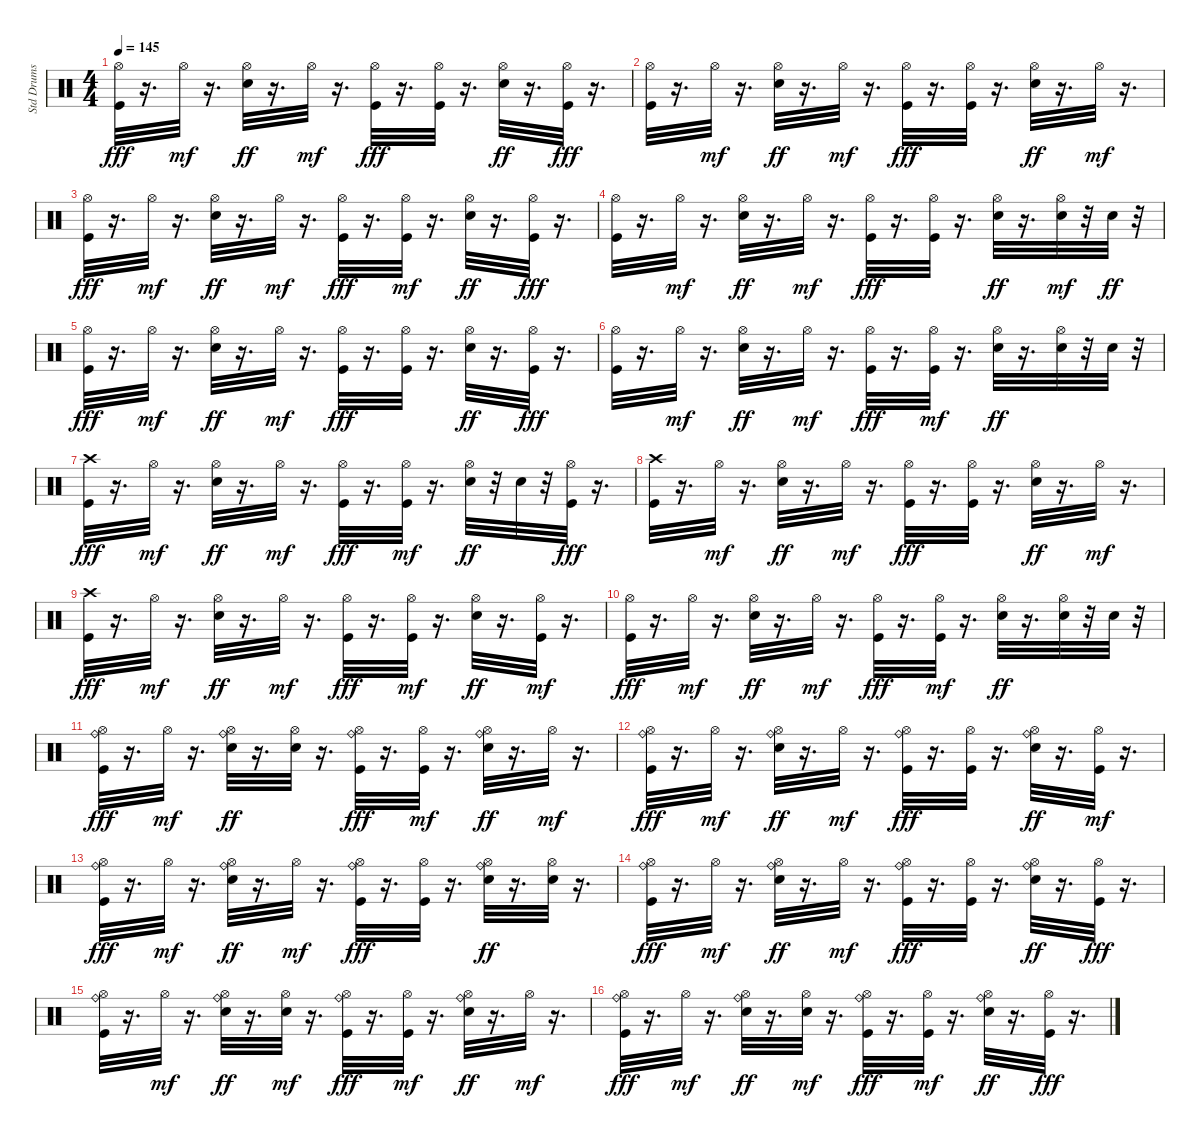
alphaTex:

\track ("Std Drums" "Std Drums") {instrument percussion}
\staff {score}
\articulation defaults
\ts (4 4)
\tempo 145
\clef neutral
\ks c
("Hi-Hat (open)" "Kick (hit)").32{dy fff} r.16{d} "Hi-Hat (open)".32{dy mf} r.16{d} ("Hi-Hat (open)" "Snare (hit) 2").32{dy ff} r.16{d} "Hi-Hat (open)".32{dy mf} r.16{d} ("Kick (hit)" "Hi-Hat (open)").32{dy fff} r.16{d} ("Hi-Hat (open)" "Kick (hit)").32 r.16{d} ("Hi-Hat (open)" "Snare (hit) 2").32{dy ff} r.16{d} ("Hi-Hat (open)" "Kick (hit)").32{dy fff} r.16{d} |
("Hi-Hat (open)" "Kick (hit)").32 r.16{d} "Hi-Hat (open)".32{dy mf} r.16{d} ("Hi-Hat (open)" "Snare (hit) 2").32{dy ff} r.16{d} "Hi-Hat (open)".32{dy mf} r.16{d} ("Hi-Hat (open)" "Kick (hit)").32{dy fff} r.16{d} ("Hi-Hat (open)" "Kick (hit)").32 r.16{d} ("Hi-Hat (open)" "Snare (hit) 2").32{dy ff} r.16{d} "Hi-Hat (open)".32{dy mf} r.16{d} |
("Kick (hit)" "Hi-Hat (open)").32{dy fff} r.16{d} "Hi-Hat (open)".32{dy mf} r.16{d} ("Hi-Hat (open)" "Snare (hit) 2").32{dy ff} r.16{d} "Hi-Hat (open)".32{dy mf} r.16{d} ("Kick (hit)" "Hi-Hat (open)").32{dy fff} r.16{d} ("Kick (hit)" "Hi-Hat (open)").32{dy mf} r.16{d} ("Hi-Hat (open)" "Snare (hit) 2").32{dy ff} r.16{d} ("Hi-Hat (open)" "Kick (hit)").32{dy fff} r.16{d} |
("Kick (hit)" "Hi-Hat (open)").32 r.16{d} "Hi-Hat (open)".32{dy mf} r.16{d} ("Snare (hit) 2" "Hi-Hat (open)").32{dy ff} r.16{d} "Hi-Hat (open)".32{dy mf} r.16{d} ("Kick (hit)" "Hi-Hat (open)").32{dy fff} r.16{d} ("Hi-Hat (open)" "Kick (hit)").32 r.16{d} ("Hi-Hat (open)" "Snare (hit) 2").32{dy ff} r.16{d} ("Snare (hit) 2" "Hi-Hat (open)").32{dy mf} r.32 "Snare (hit) 2".32{dy ff} r.32 |
("Kick (hit)" "Hi-Hat (open)").32{dy fff} r.16{d} "Hi-Hat (open)".32{dy mf} r.16{d} ("Snare (hit) 2" "Hi-Hat (open)").32{dy ff} r.16{d} "Hi-Hat (open)".32{dy mf} r.16{d} ("Kick (hit)" "Hi-Hat (open)").32{dy fff} r.16{d} ("Hi-Hat (open)" "Kick (hit)").32 r.16{d} ("Hi-Hat (open)" "Snare (hit) 2").32{dy ff} r.16{d} ("Hi-Hat (open)" "Kick (hit)").32{dy fff} r.16{d} |
("Hi-Hat (open)" "Kick (hit)").32 r.16{d} "Hi-Hat (open)".32{dy mf} r.16{d} ("Snare (hit) 2" "Hi-Hat (open)").32{dy ff} r.16{d} "Hi-Hat (open)".32{dy mf} r.16{d} ("Kick (hit)" "Hi-Hat (open)").32{dy fff} r.16{d} ("Kick (hit)" "Hi-Hat (open)").32{dy mf} r.16{d} ("Snare (hit) 2" "Hi-Hat (open)").32{dy ff} r.16{d} ("Hi-Hat (open)" "Snare (hit) 2").32 r.32 "Snare (hit) 2".32 r.32 |
("Crash high (hit)" "Kick (hit)").32{dy fff} r.16{d} "Hi-Hat (open)".32{dy mf} r.16{d} ("Snare (hit) 2" "Hi-Hat (open)").32{dy ff} r.16{d} "Hi-Hat (open)".32{dy mf} r.16{d} ("Kick (hit)" "Hi-Hat (open)").32{dy fff} r.16{d} ("Kick (hit)" "Hi-Hat (open)").32{dy mf} r.16{d} ("Hi-Hat (open)" "Snare (hit) 2").32{dy ff} r.32 "Snare (hit) 2".32 r.32 ("Hi-Hat (open)" "Kick (hit)").32{dy fff} r.16{d} |
("Kick (hit)" "Crash high (hit)").32 r.16{d} "Hi-Hat (open)".32{dy mf} r.16{d} ("Hi-Hat (open)" "Snare (hit) 2").32{dy ff} r.16{d} "Hi-Hat (open)".32{dy mf} r.16{d} ("Hi-Hat (open)" "Kick (hit)").32{dy fff} r.16{d} ("Hi-Hat (open)" "Kick (hit)").32 r.16{d} ("Hi-Hat (open)" "Snare (hit) 2").32{dy ff} r.16{d} "Hi-Hat (open)".32{dy mf} r.16{d} |
("Kick (hit)" "Crash high (hit)").32{dy fff} r.16{d} "Hi-Hat (open)".32{dy mf} r.16{d} ("Hi-Hat (open)" "Snare (hit) 2").32{dy ff} r.16{d} "Hi-Hat (open)".32{dy mf} r.16{d} ("Kick (hit)" "Hi-Hat (open)").32{dy fff} r.16{d} ("Kick (hit)" "Hi-Hat (open)").32{dy mf} r.16{d} ("Snare (hit) 2" "Hi-Hat (open)").32{dy ff} r.16{d} ("Kick (hit)" "Hi-Hat (open)").32{dy mf} r.16{d} |
("Hi-Hat (open)" "Kick (hit)").32{dy fff} r.16{d} "Hi-Hat (open)".32{dy mf} r.16{d} ("Hi-Hat (open)" "Snare (hit) 2").32{dy ff} r.16{d} "Hi-Hat (open)".32{dy mf} r.16{d} ("Hi-Hat (open)" "Kick (hit)").32{dy fff} r.16{d} ("Kick (hit)" "Hi-Hat (open)").32{dy mf} r.16{d} ("Snare (hit) 2" "Hi-Hat (open)").32{dy ff} r.16{d} ("Hi-Hat (open)" "Snare (hit) 2").32 r.32 "Snare (hit) 2".32 r.32 |
("Hi-Hat (open)" "Kick (hit)" "Ride (bell)").32{dy fff} r.16{d} "Hi-Hat (open)".32{dy mf} r.16{d} ("Hi-Hat (open)" "Snare (hit) 2" "Ride (bell)").32{dy ff} r.16{d} ("Hi-Hat (open)" "Snare (hit) 2").32 r.16{d} ("Kick (hit)" "Ride (bell)" "Hi-Hat (open)").32{dy fff} r.16{d} ("Kick (hit)" "Hi-Hat (open)").32{dy mf} r.16{d} ("Snare (hit) 2" "Hi-Hat (open)" "Ride (bell)").32{dy ff} r.16{d} "Hi-Hat (open)".32{dy mf} r.16{d} |
("Kick (hit)" "Hi-Hat (open)" "Ride (bell)").32{dy fff} r.16{d} "Hi-Hat (open)".32{dy mf} r.16{d} ("Hi-Hat (open)" "Ride (bell)" "Snare (hit) 2").32{dy ff} r.16{d} "Hi-Hat (open)".32{dy mf} r.16{d} ("Hi-Hat (open)" "Kick (hit)" "Ride (bell)").32{dy fff} r.16{d} ("Hi-Hat (open)" "Kick (hit)").32 r.16{d} ("Ride (bell)" "Hi-Hat (open)" "Snare (hit) 2").32{dy ff} r.16{d} ("Kick (hit)" "Hi-Hat (open)").32{dy mf} r.16{d} |
("Kick (hit)" "Hi-Hat (open)" "Ride (bell)").32{dy fff} r.16{d} "Hi-Hat (open)".32{dy mf} r.16{d} ("Ride (bell)" "Snare (hit) 2" "Hi-Hat (open)").32{dy ff} r.16{d} "Hi-Hat (open)".32{dy mf} r.16{d} ("Hi-Hat (open)" "Ride (bell)" "Kick (hit)").32{dy fff} r.16{d} ("Hi-Hat (open)" "Kick (hit)").32 r.16{d} ("Hi-Hat (open)" "Snare (hit) 2" "Ride (bell)").32{dy ff} r.16{d} ("Hi-Hat (open)" "Snare (hit) 2").32 r.16{d} |
("Ride (bell)" "Hi-Hat (open)" "Kick (hit)").32{dy fff} r.16{d} "Hi-Hat (open)".32{dy mf} r.16{d} ("Hi-Hat (open)" "Ride (bell)" "Snare (hit) 2").32{dy ff} r.16{d} "Hi-Hat (open)".32{dy mf} r.16{d} ("Kick (hit)" "Ride (bell)" "Hi-Hat (open)").32{dy fff} r.16{d} ("Hi-Hat (open)" "Kick (hit)").32 r.16{d} ("Hi-Hat (open)" "Ride (bell)" "Snare (hit) 2").32{dy ff} r.16{d} ("Hi-Hat (open)" "Kick (hit)").32{dy fff} r.16{d} |
("Hi-Hat (open)" "Ride (bell)" "Kick (hit)").32 r.16{d} "Hi-Hat (open)".32{dy mf} r.16{d} ("Snare (hit) 2" "Ride (bell)" "Hi-Hat (open)").32{dy ff} r.16{d} ("Snare (hit) 2" "Hi-Hat (open)").32{dy mf} r.16{d} ("Kick (hit)" "Hi-Hat (open)" "Ride (bell)").32{dy fff} r.16{d} ("Kick (hit)" "Hi-Hat (open)").32{dy mf} r.16{d} ("Hi-Hat (open)" "Ride (bell)" "Snare (hit) 2").32{dy ff} r.16{d} "Hi-Hat (open)".32{dy mf} r.16{d} |
("Ride (bell)" "Hi-Hat (open)" "Kick (hit)").32{dy fff} r.16{d} "Hi-Hat (open)".32{dy mf} r.16{d} ("Hi-Hat (open)" "Ride (bell)" "Snare (hit) 2").32{dy ff} r.16{d} ("Snare (hit) 2" "Hi-Hat (open)").32{dy mf} r.16{d} ("Hi-Hat (open)" "Ride (bell)" "Kick (hit)").32{dy fff} r.16{d} ("Kick (hit)" "Hi-Hat (open)").32{dy mf} r.16{d} ("Ride (bell)" "Snare (hit) 2" "Hi-Hat (open)").32{dy ff} r.16{d} ("Hi-Hat (open)" "Kick (hit)").32{dy fff} r.16{d}
